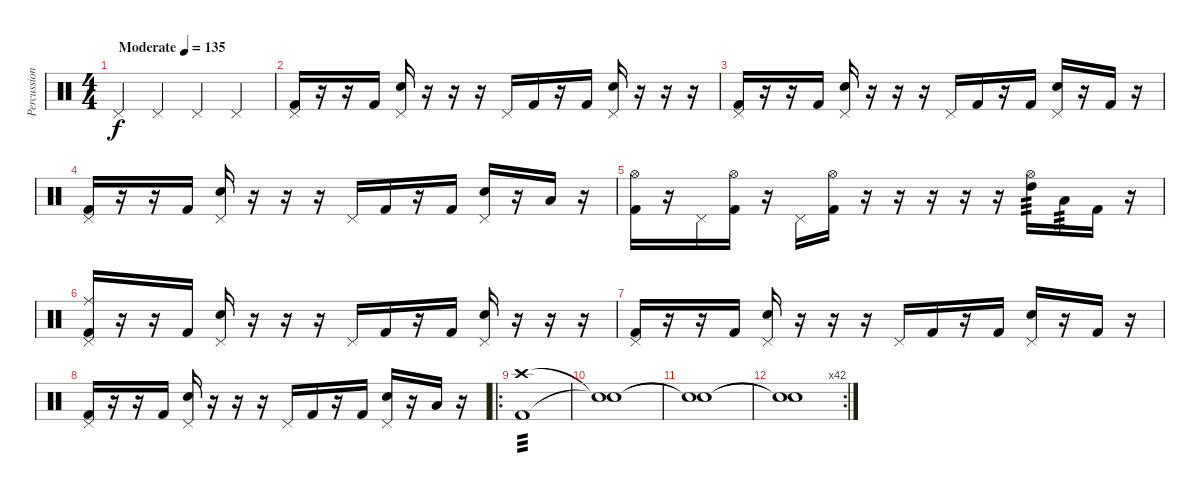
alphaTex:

\track ("Percussion" "Percussion") {instrument percussion}
\staff {score}
\articulation defaults
\ts (4 4)
\tempo (135 "Moderate")
\clef neutral
\ks c "Pedal Hi-Hat (hit)".4{dy f} "Pedal Hi-Hat (hit)".4 "Pedal Hi-Hat (hit)".4 "Pedal Hi-Hat (hit)".4
|
("Pedal Hi-Hat (hit)" "Kick (hit) 2").16 r.16 r.16 "Kick (hit) 2".16 ("Electric Snare (hit)" "Pedal Hi-Hat (hit)").16 r.16 r.16 r.16 "Pedal Hi-Hat (hit)".16 "Kick (hit) 2".16 r.16 "Kick (hit) 2".16 ("Electric Snare (hit)" "Pedal Hi-Hat (hit)").16 r.16 r.16 r.16 |
("Pedal Hi-Hat (hit)" "Kick (hit) 2").16 r.16 r.16 "Kick (hit) 2".16 ("Electric Snare (hit)" "Pedal Hi-Hat (hit)").16 r.16 r.16 r.16 "Pedal Hi-Hat (hit)".16 "Kick (hit) 2".16 r.16 "Kick (hit) 2".16 ("Electric Snare (hit)" "Pedal Hi-Hat (hit)").16 r.16 "Kick (hit) 2".16 r.16 |
("Pedal Hi-Hat (hit)" "Kick (hit) 2").16 r.16 r.16 "Kick (hit) 2".16 ("Electric Snare (hit)" "Pedal Hi-Hat (hit)").16 r.16 r.16 r.16 "Pedal Hi-Hat (hit)".16 "Kick (hit) 2".16 r.16 "Kick (hit) 2".16 ("Electric Snare (hit)" "Pedal Hi-Hat (hit)").16 r.16 "Low Tom (hit)".16 r.16 |
("Hi-Hat (open)" "Kick (hit) 2").16 r.16 "Pedal Hi-Hat (hit)".16 ("Hi-Hat (open)" "Kick (hit) 2").16 r.16 "Pedal Hi-Hat (hit)".16 ("Hi-Hat (open)" "Kick (hit) 2").16 r.16 r.16 r.16 r.16 r.16 ("Hi-Hat (open)" "High Tom (hit)").16{tp 3} "Low Tom (hit)".16{tp 3} "Kick (hit) 2".16 r.16 |
("Ride (middle)" "Pedal Hi-Hat (hit)" "Kick (hit) 2").16 r.16 r.16 "Kick (hit) 2".16 ("Electric Snare (hit)" "Pedal Hi-Hat (hit)").16 r.16 r.16 r.16 "Pedal Hi-Hat (hit)".16 "Kick (hit) 2".16 r.16 "Kick (hit) 2".16 ("Electric Snare (hit)" "Pedal Hi-Hat (hit)").16 r.16 r.16 r.16 |
("Pedal Hi-Hat (hit)" "Kick (hit) 2").16 r.16 r.16 "Kick (hit) 2".16 ("Electric Snare (hit)" "Pedal Hi-Hat (hit)").16 r.16 r.16 r.16 "Pedal Hi-Hat (hit)".16 "Kick (hit) 2".16 r.16 "Kick (hit) 2".16 ("Electric Snare (hit)" "Pedal Hi-Hat (hit)").16 r.16 "Kick (hit) 2".16 r.16 |
("Pedal Hi-Hat (hit)" "Kick (hit) 2").16 r.16 r.16 "Kick (hit) 2".16 ("Electric Snare (hit)" "Pedal Hi-Hat (hit)").16 r.16 r.16 r.16 "Pedal Hi-Hat (hit)".16 "Kick (hit) 2".16 r.16 "Kick (hit) 2".16 ("Electric Snare (hit)" "Pedal Hi-Hat (hit)").16 r.16 "Low Tom (hit)".16 r.16 |
\ro
("Crash high (hit)" "Kick (hit) 2").1{tp 3} |
("Snare (hit)"{t} "Snare (hit)"{t}).1 |
("Snare (hit)"{t} "Snare (hit)"{t}).1 |
\rc 42
("Snare (hit)"{t} "Snare (hit)"{t}).1
